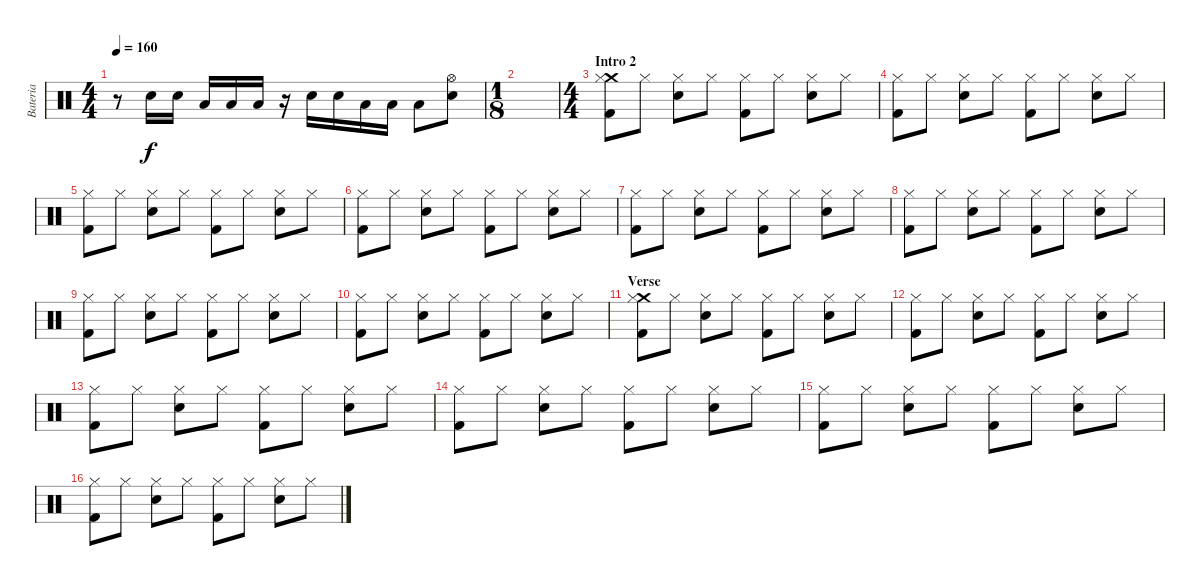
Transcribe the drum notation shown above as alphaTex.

\track ("Bateria" "Bateria") {instrument percussion}
\staff {score}
\articulation defaults
\ts (4 4)
\tempo 160
\clef neutral
\ks c
r.8{dy mp} "Electric Snare (hit)".16{dy f} "Electric Snare (hit)".16 "Low Tom (hit)".16 "Low Tom (hit)".16 "Low Tom (hit)".16 r.16 "Electric Snare (hit)".16 "Electric Snare (hit)".16 "Low Tom (hit)".16 "Low Tom (hit)".16 "Low Tom (hit)".8 ("Electric Snare (hit)" "Hi-Hat (open)").8 |
\ts (1 8)
|
\ts (4 4)
\section ("" "Intro 2")
("Crash medium (hit)" "Hi-Hat (closed)" "Kick (hit) 2").8 "Hi-Hat (closed)".8 ("Hi-Hat (closed)" "Electric Snare (hit)").8 "Hi-Hat (closed)".8 ("Hi-Hat (closed)" "Kick (hit) 2").8 "Hi-Hat (closed)".8 ("Hi-Hat (closed)" "Electric Snare (hit)").8 "Hi-Hat (closed)".8 |
("Hi-Hat (closed)" "Kick (hit) 2").8 "Hi-Hat (closed)".8 ("Hi-Hat (closed)" "Electric Snare (hit)").8 "Hi-Hat (closed)".8 ("Hi-Hat (closed)" "Kick (hit) 2").8 "Hi-Hat (closed)".8 ("Hi-Hat (closed)" "Electric Snare (hit)").8 "Hi-Hat (closed)".8 |
("Hi-Hat (closed)" "Kick (hit) 2").8 "Hi-Hat (closed)".8 ("Hi-Hat (closed)" "Electric Snare (hit)").8 "Hi-Hat (closed)".8 ("Hi-Hat (closed)" "Kick (hit) 2").8 "Hi-Hat (closed)".8 ("Hi-Hat (closed)" "Electric Snare (hit)").8 "Hi-Hat (closed)".8 |
("Hi-Hat (closed)" "Kick (hit) 2").8 "Hi-Hat (closed)".8 ("Hi-Hat (closed)" "Electric Snare (hit)").8 "Hi-Hat (closed)".8 ("Hi-Hat (closed)" "Kick (hit) 2").8 "Hi-Hat (closed)".8 ("Hi-Hat (closed)" "Electric Snare (hit)").8 "Hi-Hat (closed)".8 |
("Hi-Hat (closed)" "Kick (hit) 2").8 "Hi-Hat (closed)".8 ("Hi-Hat (closed)" "Electric Snare (hit)").8 "Hi-Hat (closed)".8 ("Hi-Hat (closed)" "Kick (hit) 2").8 "Hi-Hat (closed)".8 ("Hi-Hat (closed)" "Electric Snare (hit)").8 "Hi-Hat (closed)".8 |
("Hi-Hat (closed)" "Kick (hit) 2").8 "Hi-Hat (closed)".8 ("Hi-Hat (closed)" "Electric Snare (hit)").8 "Hi-Hat (closed)".8 ("Hi-Hat (closed)" "Kick (hit) 2").8 "Hi-Hat (closed)".8 ("Hi-Hat (closed)" "Electric Snare (hit)").8 "Hi-Hat (closed)".8 |
("Hi-Hat (closed)" "Kick (hit) 2").8 "Hi-Hat (closed)".8 ("Hi-Hat (closed)" "Electric Snare (hit)").8 "Hi-Hat (closed)".8 ("Hi-Hat (closed)" "Kick (hit) 2").8 "Hi-Hat (closed)".8 ("Hi-Hat (closed)" "Electric Snare (hit)").8 "Hi-Hat (closed)".8 |
("Hi-Hat (closed)" "Kick (hit) 2").8 "Hi-Hat (closed)".8 ("Hi-Hat (closed)" "Electric Snare (hit)").8 "Hi-Hat (closed)".8 ("Hi-Hat (closed)" "Kick (hit) 2").8 "Hi-Hat (closed)".8 ("Hi-Hat (closed)" "Electric Snare (hit)").8 "Hi-Hat (closed)".8 |
\section ("" "Verse")
("Crash medium (hit)" "Hi-Hat (closed)" "Kick (hit) 2").8 "Hi-Hat (closed)".8 ("Hi-Hat (closed)" "Electric Snare (hit)").8 "Hi-Hat (closed)".8 ("Hi-Hat (closed)" "Kick (hit) 2").8 "Hi-Hat (closed)".8 ("Hi-Hat (closed)" "Electric Snare (hit)").8 "Hi-Hat (closed)".8 |
("Hi-Hat (closed)" "Kick (hit) 2").8 "Hi-Hat (closed)".8 ("Hi-Hat (closed)" "Electric Snare (hit)").8 "Hi-Hat (closed)".8 ("Hi-Hat (closed)" "Kick (hit) 2").8 "Hi-Hat (closed)".8 ("Hi-Hat (closed)" "Electric Snare (hit)").8 "Hi-Hat (closed)".8 |
("Hi-Hat (closed)" "Kick (hit) 2").8 "Hi-Hat (closed)".8 ("Hi-Hat (closed)" "Electric Snare (hit)").8 "Hi-Hat (closed)".8 ("Hi-Hat (closed)" "Kick (hit) 2").8 "Hi-Hat (closed)".8 ("Hi-Hat (closed)" "Electric Snare (hit)").8 "Hi-Hat (closed)".8 |
("Hi-Hat (closed)" "Kick (hit) 2").8 "Hi-Hat (closed)".8 ("Hi-Hat (closed)" "Electric Snare (hit)").8 "Hi-Hat (closed)".8 ("Hi-Hat (closed)" "Kick (hit) 2").8 "Hi-Hat (closed)".8 ("Hi-Hat (closed)" "Electric Snare (hit)").8 "Hi-Hat (closed)".8 |
("Hi-Hat (closed)" "Kick (hit) 2").8 "Hi-Hat (closed)".8 ("Hi-Hat (closed)" "Electric Snare (hit)").8 "Hi-Hat (closed)".8 ("Hi-Hat (closed)" "Kick (hit) 2").8 "Hi-Hat (closed)".8 ("Hi-Hat (closed)" "Electric Snare (hit)").8 "Hi-Hat (closed)".8 |
("Hi-Hat (closed)" "Kick (hit) 2").8 "Hi-Hat (closed)".8 ("Hi-Hat (closed)" "Electric Snare (hit)").8 "Hi-Hat (closed)".8 ("Hi-Hat (closed)" "Kick (hit) 2").8 "Hi-Hat (closed)".8 ("Hi-Hat (closed)" "Electric Snare (hit)").8 "Hi-Hat (closed)".8
